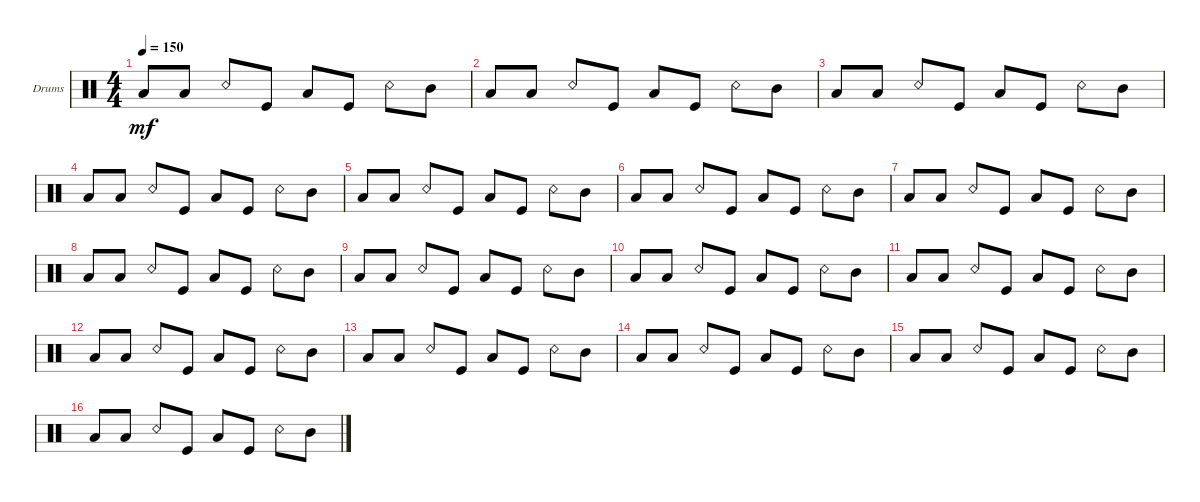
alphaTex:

\defaultSystemsLayout 4
\bracketExtendMode groupsimilarinstruments
\firstSystemTrackNameOrientation horizontal
\otherSystemsTrackNameOrientation horizontal
\track ("Drumkit" "Drums") {instrument percussion}
\staff {score}
\articulation defaults
\ts (4 4)
\tempo 150
\clef neutral
\ks c "Low Tom (hit)".8{dy mf} "Low Tom (hit)".8 "Snare (rim shot)".8 "Kick (hit)".8 "Low Tom (hit)".8 "Kick (hit)".8 "Snare (rim shot)".8 "Mid Tom (hit)".8
|
"Low Tom (hit)".8 "Low Tom (hit)".8 "Snare (rim shot)".8 "Kick (hit)".8 "Low Tom (hit)".8 "Kick (hit)".8 "Snare (rim shot)".8 "Mid Tom (hit)".8 |
"Low Tom (hit)".8 "Low Tom (hit)".8 "Snare (rim shot)".8 "Kick (hit)".8 "Low Tom (hit)".8 "Kick (hit)".8 "Snare (rim shot)".8 "Mid Tom (hit)".8 |
"Low Tom (hit)".8 "Low Tom (hit)".8 "Snare (rim shot)".8 "Kick (hit)".8 "Low Tom (hit)".8 "Kick (hit)".8 "Snare (rim shot)".8 "Mid Tom (hit)".8 |
"Low Tom (hit)".8 "Low Tom (hit)".8 "Snare (rim shot)".8 "Kick (hit)".8 "Low Tom (hit)".8 "Kick (hit)".8 "Snare (rim shot)".8 "Mid Tom (hit)".8 |
"Low Tom (hit)".8 "Low Tom (hit)".8 "Snare (rim shot)".8 "Kick (hit)".8 "Low Tom (hit)".8 "Kick (hit)".8 "Snare (rim shot)".8 "Mid Tom (hit)".8 |
"Low Tom (hit)".8 "Low Tom (hit)".8 "Snare (rim shot)".8 "Kick (hit)".8 "Low Tom (hit)".8 "Kick (hit)".8 "Snare (rim shot)".8 "Mid Tom (hit)".8 |
"Low Tom (hit)".8 "Low Tom (hit)".8 "Snare (rim shot)".8 "Kick (hit)".8 "Low Tom (hit)".8 "Kick (hit)".8 "Snare (rim shot)".8 "Mid Tom (hit)".8 |
"Low Tom (hit)".8 "Low Tom (hit)".8 "Snare (rim shot)".8 "Kick (hit)".8 "Low Tom (hit)".8 "Kick (hit)".8 "Snare (rim shot)".8 "Mid Tom (hit)".8 |
"Low Tom (hit)".8 "Low Tom (hit)".8 "Snare (rim shot)".8 "Kick (hit)".8 "Low Tom (hit)".8 "Kick (hit)".8 "Snare (rim shot)".8 "Mid Tom (hit)".8 |
"Low Tom (hit)".8 "Low Tom (hit)".8 "Snare (rim shot)".8 "Kick (hit)".8 "Low Tom (hit)".8 "Kick (hit)".8 "Snare (rim shot)".8 "Mid Tom (hit)".8 |
"Low Tom (hit)".8 "Low Tom (hit)".8 "Snare (rim shot)".8 "Kick (hit)".8 "Low Tom (hit)".8 "Kick (hit)".8 "Snare (rim shot)".8 "Mid Tom (hit)".8 |
"Low Tom (hit)".8 "Low Tom (hit)".8 "Snare (rim shot)".8 "Kick (hit)".8 "Low Tom (hit)".8 "Kick (hit)".8 "Snare (rim shot)".8 "Mid Tom (hit)".8 |
"Low Tom (hit)".8 "Low Tom (hit)".8 "Snare (rim shot)".8 "Kick (hit)".8 "Low Tom (hit)".8 "Kick (hit)".8 "Snare (rim shot)".8 "Mid Tom (hit)".8 |
"Low Tom (hit)".8 "Low Tom (hit)".8 "Snare (rim shot)".8 "Kick (hit)".8 "Low Tom (hit)".8 "Kick (hit)".8 "Snare (rim shot)".8 "Mid Tom (hit)".8 |
"Low Tom (hit)".8 "Low Tom (hit)".8 "Snare (rim shot)".8 "Kick (hit)".8 "Low Tom (hit)".8 "Kick (hit)".8 "Snare (rim shot)".8 "Mid Tom (hit)".8
